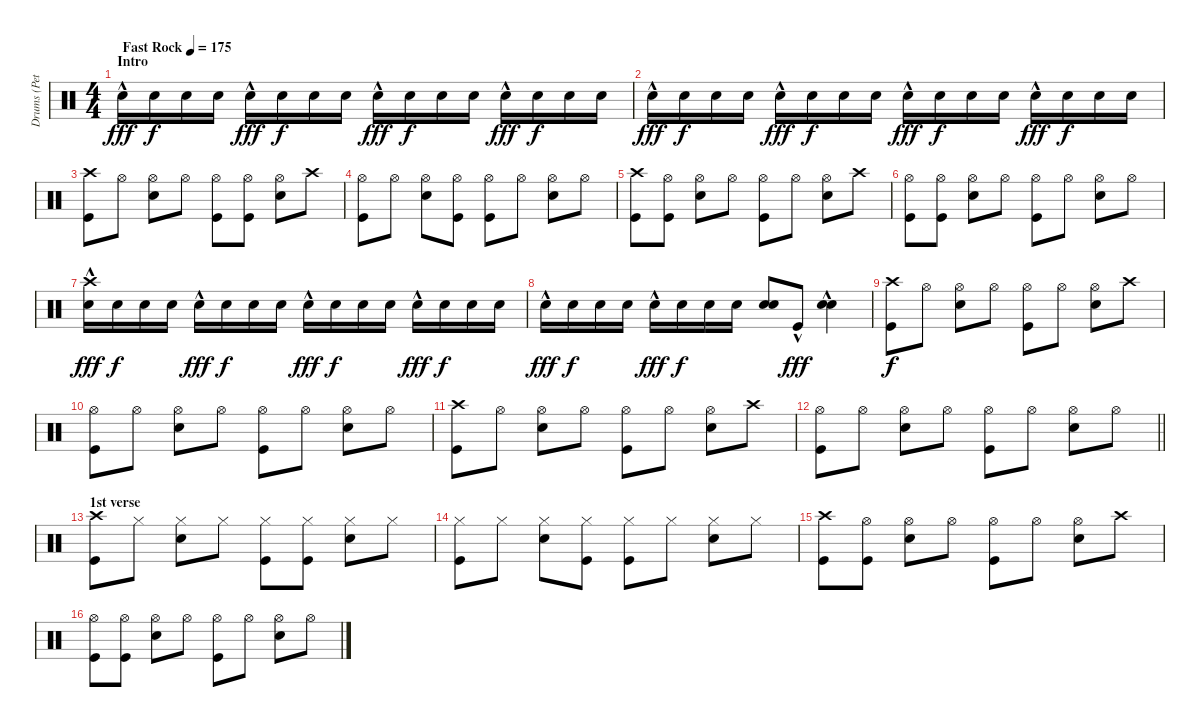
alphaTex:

\track ("Drums (Peter Jensen)" "Drums (Pet") {instrument percussion}
\staff {score}
\articulation defaults
\ts (4 4)
\section ("" "Intro")
\tempo (175 "Fast Rock")
\clef neutral
\ks c "Snare (hit) 2"{hac}.16{dy fff} "Snare (hit) 2".16{dy f} "Snare (hit) 2".16 "Snare (hit) 2".16 "Snare (hit) 2"{hac}.16{dy fff} "Snare (hit) 2".16{dy f} "Snare (hit) 2".16 "Snare (hit) 2".16 "Snare (hit) 2"{hac}.16{dy fff} "Snare (hit) 2".16{dy f} "Snare (hit) 2".16 "Snare (hit) 2".16 "Snare (hit) 2"{hac}.16{dy fff} "Snare (hit) 2".16{dy f} "Snare (hit) 2".16 "Snare (hit) 2".16
|
"Snare (hit) 2"{hac}.16{dy fff} "Snare (hit) 2".16{dy f} "Snare (hit) 2".16 "Snare (hit) 2".16 "Snare (hit) 2"{hac}.16{dy fff} "Snare (hit) 2".16{dy f} "Snare (hit) 2".16 "Snare (hit) 2".16 "Snare (hit) 2"{hac}.16{dy fff} "Snare (hit) 2".16{dy f} "Snare (hit) 2".16 "Snare (hit) 2".16 "Snare (hit) 2"{hac}.16{dy fff} "Snare (hit) 2".16{dy f} "Snare (hit) 2".16 "Snare (hit) 2".16 |
("Crash high (hit)" "Kick (hit)").8 "Hi-Hat (open)".8 ("Hi-Hat (open)" "Snare (hit) 2").8 "Hi-Hat (open)".8 ("Hi-Hat (open)" "Kick (hit)").8 ("Hi-Hat (open)" "Kick (hit)").8 ("Hi-Hat (open)" "Snare (hit) 2").8 "Crash high (hit)".8 |
("Hi-Hat (open)" "Kick (hit)").8 "Hi-Hat (open)".8 ("Hi-Hat (open)" "Snare (hit) 2").8 ("Hi-Hat (open)" "Kick (hit)").8 ("Hi-Hat (open)" "Kick (hit)").8 "Hi-Hat (open)".8 ("Hi-Hat (open)" "Snare (hit) 2").8 "Hi-Hat (open)".8 |
("Crash high (hit)" "Kick (hit)").8 ("Hi-Hat (open)" "Kick (hit)").8 ("Hi-Hat (open)" "Snare (hit) 2").8 "Hi-Hat (open)".8 ("Hi-Hat (open)" "Kick (hit)").8 "Hi-Hat (open)".8 ("Hi-Hat (open)" "Snare (hit) 2").8 "Crash high (hit)".8 |
("Hi-Hat (open)" "Kick (hit)").8 ("Hi-Hat (open)" "Kick (hit)").8 ("Hi-Hat (open)" "Snare (hit) 2").8 "Hi-Hat (open)".8 ("Hi-Hat (open)" "Kick (hit)").8 "Hi-Hat (open)".8 ("Hi-Hat (open)" "Snare (hit) 2").8 "Hi-Hat (open)".8 |
("Crash high (hit)" "Snare (hit) 2"{hac}).16{dy fff} "Snare (hit) 2".16{dy f} "Snare (hit) 2".16 "Snare (hit) 2".16 "Snare (hit) 2"{hac}.16{dy fff} "Snare (hit) 2".16{dy f} "Snare (hit) 2".16 "Snare (hit) 2".16 "Snare (hit) 2"{hac}.16{dy fff} "Snare (hit) 2".16{dy f} "Snare (hit) 2".16 "Snare (hit) 2".16 "Snare (hit) 2"{hac}.16{dy fff} "Snare (hit) 2".16{dy f} "Snare (hit) 2".16 "Snare (hit) 2".16 |
"Snare (hit) 2"{hac}.16{dy fff} "Snare (hit) 2".16{dy f} "Snare (hit) 2".16 "Snare (hit) 2".16 "Snare (hit) 2"{hac}.16{dy fff} "Snare (hit) 2".16{dy f} "Snare (hit) 2".16 "Snare (hit) 2".16 ("Snare (hit) 2" "Snare (hit) 2").8 "Kick (hit)"{hac}.8{dy fff} ("Snare (hit) 2"{hac} "Snare (hit) 2"{hac}).4 |
("Crash high (hit)" "Kick (hit)").8{dy f} "Hi-Hat (open)".8 ("Hi-Hat (open)" "Snare (hit) 2").8 "Hi-Hat (open)".8 ("Hi-Hat (open)" "Kick (hit)").8 "Hi-Hat (open)".8 ("Hi-Hat (open)" "Snare (hit) 2").8 "Crash high (hit)".8 |
("Hi-Hat (open)" "Kick (hit)").8 "Hi-Hat (open)".8 ("Hi-Hat (open)" "Snare (hit) 2").8 "Hi-Hat (open)".8 ("Hi-Hat (open)" "Kick (hit)").8 "Hi-Hat (open)".8 ("Hi-Hat (open)" "Snare (hit) 2").8 "Hi-Hat (open)".8 |
("Crash high (hit)" "Kick (hit)").8 "Hi-Hat (open)".8 ("Hi-Hat (open)" "Snare (hit) 2").8 "Hi-Hat (open)".8 ("Hi-Hat (open)" "Kick (hit)").8 "Hi-Hat (open)".8 ("Hi-Hat (open)" "Snare (hit) 2").8 "Crash high (hit)".8 |
\barLineRight lightlight
("Hi-Hat (open)" "Kick (hit)").8 "Hi-Hat (open)".8 ("Hi-Hat (open)" "Snare (hit) 2").8 "Hi-Hat (open)".8 ("Hi-Hat (open)" "Kick (hit)").8 "Hi-Hat (open)".8 ("Hi-Hat (open)" "Snare (hit) 2").8 "Hi-Hat (open)".8 |
\section ("" "1st verse")
("Crash high (hit)" "Kick (hit)").8 "Hi-Hat (closed)".8 ("Hi-Hat (closed)" "Snare (hit) 2").8 "Hi-Hat (closed)".8 ("Hi-Hat (closed)" "Kick (hit)").8 ("Hi-Hat (closed)" "Kick (hit)").8 ("Hi-Hat (closed)" "Snare (hit) 2").8 "Hi-Hat (closed)".8 |
("Hi-Hat (closed)" "Kick (hit)").8 "Hi-Hat (closed)".8 ("Hi-Hat (closed)" "Snare (hit) 2").8 ("Hi-Hat (closed)" "Kick (hit)").8 ("Hi-Hat (closed)" "Kick (hit)").8 "Hi-Hat (closed)".8 ("Hi-Hat (closed)" "Snare (hit) 2").8 "Hi-Hat (closed)".8 |
("Crash high (hit)" "Kick (hit)").8 ("Hi-Hat (open)" "Kick (hit)").8 ("Hi-Hat (open)" "Snare (hit) 2").8 "Hi-Hat (open)".8 ("Hi-Hat (open)" "Kick (hit)").8 "Hi-Hat (open)".8 ("Hi-Hat (open)" "Snare (hit) 2").8 "Crash high (hit)".8 |
("Hi-Hat (open)" "Kick (hit)").8 ("Hi-Hat (open)" "Kick (hit)").8 ("Hi-Hat (open)" "Snare (hit) 2").8 "Hi-Hat (open)".8 ("Hi-Hat (open)" "Kick (hit)").8 "Hi-Hat (open)".8 ("Hi-Hat (open)" "Snare (hit) 2").8 "Hi-Hat (open)".8
